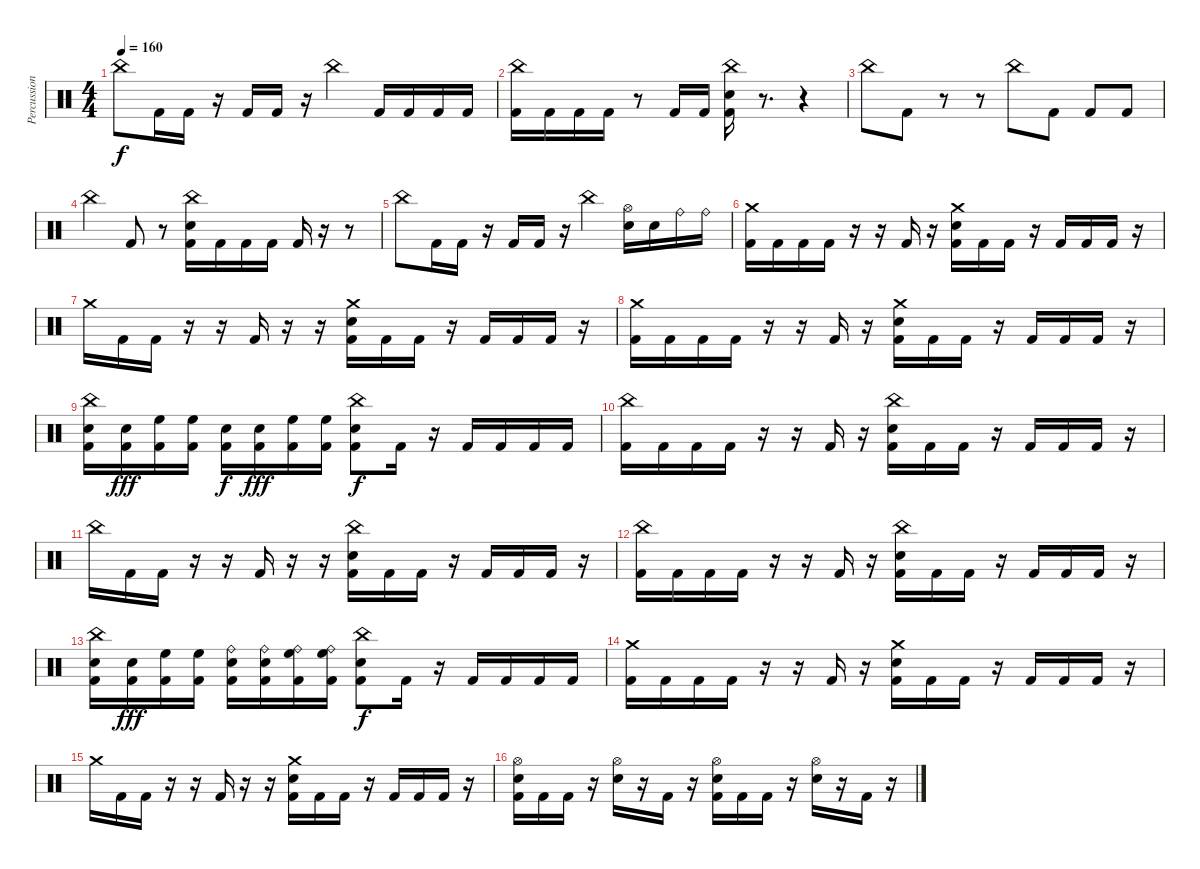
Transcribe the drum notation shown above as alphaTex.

\track ("Percussion" "Percussion") {instrument percussion}
\staff {score}
\articulation defaults
\ts (4 4)
\tempo 160
\clef neutral
\ks c "China (hit)".8{dy f} "Kick (hit) 2".16 "Kick (hit) 2".16
r.16 "Kick (hit) 2".16 "Kick (hit) 2".16 r.16 "China (hit)".4 "Kick (hit) 2".16 "Kick (hit) 2".16 "Kick (hit) 2".16 "Kick (hit) 2".16 |
("China (hit)" "Kick (hit) 2").16 "Kick (hit) 2".16 "Kick (hit) 2".16 "Kick (hit) 2".16 r.8 "Kick (hit) 2".16 "Kick (hit) 2".16 ("China (hit)" "Snare (hit) 2" "Kick (hit) 2").16 r.8{d} r.4 |
"China (hit)".8 "Kick (hit) 2".8 r.8 r.8 "China (hit)".8 "Kick (hit) 2".8 "Kick (hit) 2".8 "Kick (hit) 2".8 |
"China (hit)".4 "Kick (hit) 2".8 r.8 ("China (hit)" "Snare (hit) 2" "Kick (hit) 2").16 "Kick (hit) 2".16 "Kick (hit) 2".16 "Kick (hit) 2".16 "Kick (hit) 2".16 r.16 r.8 |
"China (hit)".8 "Kick (hit) 2".16 "Kick (hit) 2".16 r.16 "Kick (hit) 2".16 "Kick (hit) 2".16 r.16 "China (hit)".4 ("Hi-Hat (open)" "Snare (hit) 2").16 "Snare (hit) 2".16 "Ride (bell)".16 "Ride (bell)".16 |
("Crash medium (hit)" "Kick (hit) 2").16 "Kick (hit) 2".16 "Kick (hit) 2".16 "Kick (hit) 2".16 r.16 r.16 "Kick (hit) 2".16 r.16 ("Crash medium (hit)" "Snare (hit) 2" "Kick (hit) 2").16 "Kick (hit) 2".16 "Kick (hit) 2".16 r.16 "Kick (hit) 2".16 "Kick (hit) 2".16 "Kick (hit) 2".16 r.16 |
"Crash medium (hit)".16 "Kick (hit) 2".16 "Kick (hit) 2".16 r.16 r.16 "Kick (hit) 2".16 r.16 r.16 ("Crash medium (hit)" "Snare (hit) 2" "Kick (hit) 2").16 "Kick (hit) 2".16 "Kick (hit) 2".16 r.16 "Kick (hit) 2".16 "Kick (hit) 2".16 "Kick (hit) 2".16 r.16 |
("Crash medium (hit)" "Kick (hit) 2").16 "Kick (hit) 2".16 "Kick (hit) 2".16 "Kick (hit) 2".16 r.16 r.16 "Kick (hit) 2".16 r.16 ("Crash medium (hit)" "Snare (hit) 2" "Kick (hit) 2").16 "Kick (hit) 2".16 "Kick (hit) 2".16 r.16 "Kick (hit) 2".16 "Kick (hit) 2".16 "Kick (hit) 2".16 r.16 |
("China (hit)" "Snare (hit) 2" "Kick (hit) 2").16 ("Snare (hit) 2" "Kick (hit) 2").16{dy fff} ("High Floor Tom (hit)" "Kick (hit) 2").16 ("High Floor Tom (hit)" "Kick (hit) 2").16 ("Snare (hit) 2" "Kick (hit) 2").16{dy f} ("Snare (hit) 2" "Kick (hit) 2").16{dy fff} ("High Floor Tom (hit)" "Kick (hit) 2").16 ("High Floor Tom (hit)" "Kick (hit) 2").16 ("China (hit)" "Snare (hit) 2" "Kick (hit) 2").8{dy f} "Kick (hit) 2".16 r.16 "Kick (hit) 2".16 "Kick (hit) 2".16 "Kick (hit) 2".16 "Kick (hit) 2".16 |
("China (hit)" "Kick (hit) 2").16 "Kick (hit) 2".16 "Kick (hit) 2".16 "Kick (hit) 2".16 r.16 r.16 "Kick (hit) 2".16 r.16 ("China (hit)" "Snare (hit) 2" "Kick (hit) 2").16 "Kick (hit) 2".16 "Kick (hit) 2".16 r.16 "Kick (hit) 2".16 "Kick (hit) 2".16 "Kick (hit) 2".16 r.16 |
"China (hit)".16 "Kick (hit) 2".16 "Kick (hit) 2".16 r.16 r.16 "Kick (hit) 2".16 r.16 r.16 ("China (hit)" "Snare (hit) 2" "Kick (hit) 2").16 "Kick (hit) 2".16 "Kick (hit) 2".16 r.16 "Kick (hit) 2".16 "Kick (hit) 2".16 "Kick (hit) 2".16 r.16 |
("China (hit)" "Kick (hit) 2").16 "Kick (hit) 2".16 "Kick (hit) 2".16 "Kick (hit) 2".16 r.16 r.16 "Kick (hit) 2".16 r.16 ("China (hit)" "Snare (hit) 2" "Kick (hit) 2").16 "Kick (hit) 2".16 "Kick (hit) 2".16 r.16 "Kick (hit) 2".16 "Kick (hit) 2".16 "Kick (hit) 2".16 r.16 |
("China (hit)" "Snare (hit) 2" "Kick (hit) 2").16 ("Snare (hit) 2" "Kick (hit) 2").16{dy fff} ("High Floor Tom (hit)" "Kick (hit) 2").16 ("High Floor Tom (hit)" "Kick (hit) 2").16 ("Snare (hit) 2" "Ride (bell)" "Kick (hit) 2").16 ("Snare (hit) 2" "Ride (bell)" "Kick (hit) 2").16 ("High Floor Tom (hit)" "Ride (bell)" "Kick (hit) 2").16 ("High Floor Tom (hit)" "Ride (bell)" "Kick (hit) 2").16 ("China (hit)" "Snare (hit) 2" "Kick (hit) 2").8{dy f} "Kick (hit) 2".16 r.16 "Kick (hit) 2".16 "Kick (hit) 2".16 "Kick (hit) 2".16 "Kick (hit) 2".16 |
("Crash medium (hit)" "Kick (hit) 2").16 "Kick (hit) 2".16 "Kick (hit) 2".16 "Kick (hit) 2".16 r.16 r.16 "Kick (hit) 2".16 r.16 ("Crash medium (hit)" "Snare (hit) 2" "Kick (hit) 2").16 "Kick (hit) 2".16 "Kick (hit) 2".16 r.16 "Kick (hit) 2".16 "Kick (hit) 2".16 "Kick (hit) 2".16 r.16 |
"Crash medium (hit)".16 "Kick (hit) 2".16 "Kick (hit) 2".16 r.16 r.16 "Kick (hit) 2".16 r.16 r.16 ("Crash medium (hit)" "Snare (hit) 2" "Kick (hit) 2").16 "Kick (hit) 2".16 "Kick (hit) 2".16 r.16 "Kick (hit) 2".16 "Kick (hit) 2".16 "Kick (hit) 2".16 r.16 |
("Hi-Hat (open)" "Snare (hit) 2" "Kick (hit) 2").16 "Kick (hit) 2".16 "Kick (hit) 2".16 r.16 ("Hi-Hat (open)" "Snare (hit) 2").16 r.16 "Kick (hit) 2".16 r.16 ("Hi-Hat (open)" "Snare (hit) 2" "Kick (hit) 2").16 "Kick (hit) 2".16 "Kick (hit) 2".16 r.16 ("Hi-Hat (open)" "Snare (hit) 2").16 r.16 "Kick (hit) 2".16 r.16
